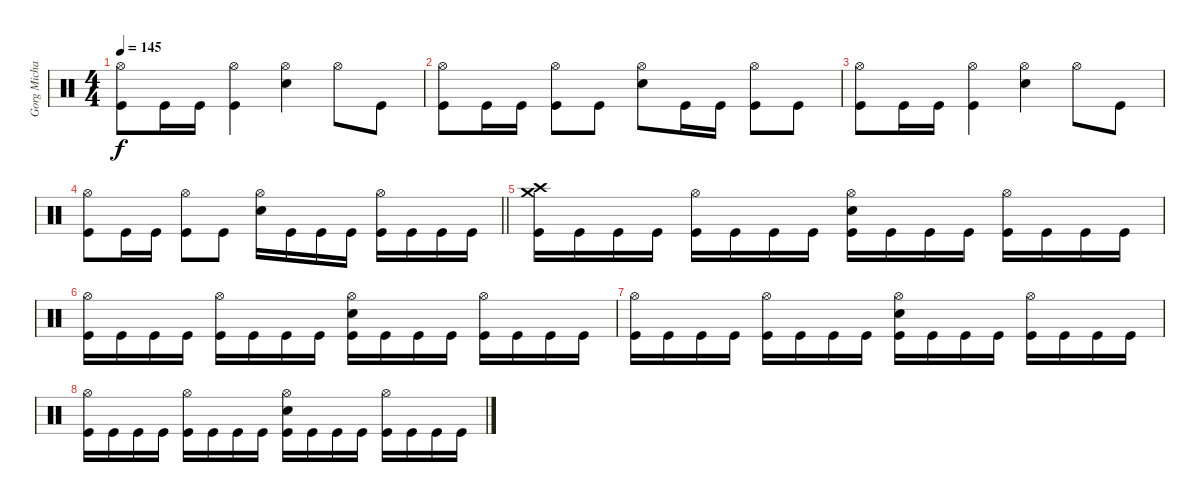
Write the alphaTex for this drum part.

\track ("Gorg Michael" "Gorg Micha") {instrument percussion}
\staff {score}
\articulation defaults
\ts (4 4)
\tempo 145
\clef neutral
\ks c
("Hi-Hat (open)" "Kick (hit)").8{dy f} "Kick (hit)".16 "Kick (hit)".16 ("Hi-Hat (open)" "Kick (hit)").4 ("Hi-Hat (open)" "Snare (hit) 2").4 "Hi-Hat (open)".8 "Kick (hit)".8 |
("Hi-Hat (open)" "Kick (hit)").8 "Kick (hit)".16 "Kick (hit)".16 ("Hi-Hat (open)" "Kick (hit)").8 "Kick (hit)".8 ("Hi-Hat (open)" "Snare (hit) 2").8 "Kick (hit)".16 "Kick (hit)".16 ("Hi-Hat (open)" "Kick (hit)").8 "Kick (hit)".8 |
("Hi-Hat (open)" "Kick (hit)").8 "Kick (hit)".16 "Kick (hit)".16 ("Hi-Hat (open)" "Kick (hit)").4 ("Hi-Hat (open)" "Snare (hit) 2").4 "Hi-Hat (open)".8 "Kick (hit)".8 |
\barLineRight lightlight
("Hi-Hat (open)" "Kick (hit)").8 "Kick (hit)".16 "Kick (hit)".16 ("Hi-Hat (open)" "Kick (hit)").8 "Kick (hit)".8 ("Hi-Hat (open)" "Snare (hit) 2").16 "Kick (hit)".16 "Kick (hit)".16 "Kick (hit)".16 ("Hi-Hat (open)" "Kick (hit)").16 "Kick (hit)".16 "Kick (hit)".16 "Kick (hit)".16 |
("Crash high (hit)" "Crash medium (hit)" "Kick (hit)").16 "Kick (hit)".16 "Kick (hit)".16 "Kick (hit)".16 ("Hi-Hat (open)" "Kick (hit)").16 "Kick (hit)".16 "Kick (hit)".16 "Kick (hit)".16 ("Hi-Hat (open)" "Snare (hit) 2" "Kick (hit)").16 "Kick (hit)".16 "Kick (hit)".16 "Kick (hit)".16 ("Hi-Hat (open)" "Kick (hit)").16 "Kick (hit)".16 "Kick (hit)".16 "Kick (hit)".16 |
("Hi-Hat (open)" "Kick (hit)").16 "Kick (hit)".16 "Kick (hit)".16 "Kick (hit)".16 ("Hi-Hat (open)" "Kick (hit)").16 "Kick (hit)".16 "Kick (hit)".16 "Kick (hit)".16 ("Hi-Hat (open)" "Snare (hit) 2" "Kick (hit)").16 "Kick (hit)".16 "Kick (hit)".16 "Kick (hit)".16 ("Hi-Hat (open)" "Kick (hit)").16 "Kick (hit)".16 "Kick (hit)".16 "Kick (hit)".16 |
("Hi-Hat (open)" "Kick (hit)").16 "Kick (hit)".16 "Kick (hit)".16 "Kick (hit)".16 ("Hi-Hat (open)" "Kick (hit)").16 "Kick (hit)".16 "Kick (hit)".16 "Kick (hit)".16 ("Hi-Hat (open)" "Snare (hit) 2" "Kick (hit)").16 "Kick (hit)".16 "Kick (hit)".16 "Kick (hit)".16 ("Hi-Hat (open)" "Kick (hit)").16 "Kick (hit)".16 "Kick (hit)".16 "Kick (hit)".16 |
("Hi-Hat (open)" "Kick (hit)").16 "Kick (hit)".16 "Kick (hit)".16 "Kick (hit)".16 ("Hi-Hat (open)" "Kick (hit)").16 "Kick (hit)".16 "Kick (hit)".16 "Kick (hit)".16 ("Hi-Hat (open)" "Snare (hit) 2" "Kick (hit)").16 "Kick (hit)".16 "Kick (hit)".16 "Kick (hit)".16 ("Hi-Hat (open)" "Kick (hit)").16 "Kick (hit)".16 "Kick (hit)".16 "Kick (hit)".16
